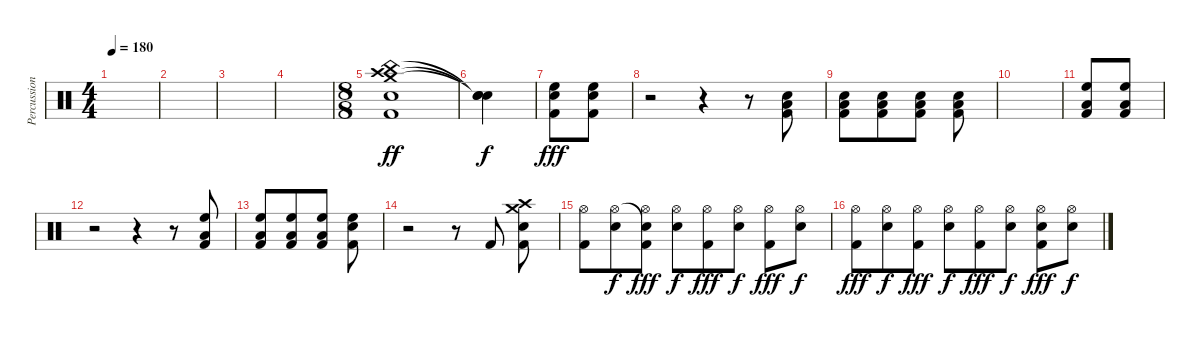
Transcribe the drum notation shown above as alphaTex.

\track ("Percussion" "Percussion") {instrument percussion}
\staff {score}
\articulation defaults
\ts (4 4)
\tempo 180
\clef neutral
\ks c
|
|
|
|
\ts (8 8)
("Crash medium (hit)" "China (hit)" "Crash high (hit)" "Snare (hit) 2" "Kick (hit) 2").1{dy ff} |
("Snare (hit)"{t} "Snare (hit)"{t} "Snare (hit)"{t}).4{dy f} |
("High Floor Tom (hit)" "Snare (hit) 2" "Kick (hit) 2").8{dy fff} ("High Floor Tom (hit)" "Snare (hit) 2" "Kick (hit) 2").8 |
r.2 r.4 r.8 ("Low Tom (hit)" "Snare (hit) 2" "Kick (hit) 2").8 |
("Low Tom (hit)" "Snare (hit) 2" "Kick (hit) 2").8 ("Low Tom (hit)" "Snare (hit) 2" "Kick (hit) 2").8 ("Low Tom (hit)" "Snare (hit) 2" "Kick (hit) 2").8 ("Low Tom (hit)" "Snare (hit) 2" "Kick (hit) 2").8 |
|
("High Floor Tom (hit)" "Low Tom (hit)" "Kick (hit) 2").8 ("High Floor Tom (hit)" "Low Tom (hit)" "Kick (hit) 2").8 |
r.2 r.4 r.8 ("High Floor Tom (hit)" "Low Tom (hit)" "Kick (hit) 2").8 |
("High Floor Tom (hit)" "Low Tom (hit)" "Kick (hit) 2").8 ("High Floor Tom (hit)" "Low Tom (hit)" "Kick (hit) 2").8 ("High Floor Tom (hit)" "Low Tom (hit)" "Kick (hit) 2").8 ("High Floor Tom (hit)" "Snare (hit) 2" "Kick (hit) 2").8 |
r.2 r.8 "Kick (hit) 2".8 ("Crash medium (hit)" "Crash high (hit)" "Snare (hit) 2" "Kick (hit) 2").8 |
("Hi-Hat (open)" "Kick (hit) 2").8 ("Hi-Hat (open)" "Snare (hit) 2").8{dy f} ("Snare (hit)"{t} "Hi-Hat (open)" "Kick (hit) 2").8{dy fff} ("Hi-Hat (open)" "Snare (hit) 2").8{dy f} ("Hi-Hat (open)" "Kick (hit) 2").8{dy fff} ("Hi-Hat (open)" "Snare (hit) 2").8{dy f} ("Hi-Hat (open)" "Kick (hit) 2").8{dy fff} ("Hi-Hat (open)" "Snare (hit) 2").8{dy f} |
("Hi-Hat (open)" "Kick (hit) 2").8{dy fff} ("Hi-Hat (open)" "Snare (hit) 2").8{dy f} ("Hi-Hat (open)" "Kick (hit) 2").8{dy fff} ("Hi-Hat (open)" "Snare (hit) 2").8{dy f} ("Hi-Hat (open)" "Kick (hit) 2").8{dy fff} ("Hi-Hat (open)" "Snare (hit) 2").8{dy f} ("Hi-Hat (open)" "Snare (hit) 2" "Kick (hit) 2").8{dy fff} ("Hi-Hat (open)" "Snare (hit) 2").8{dy f}
